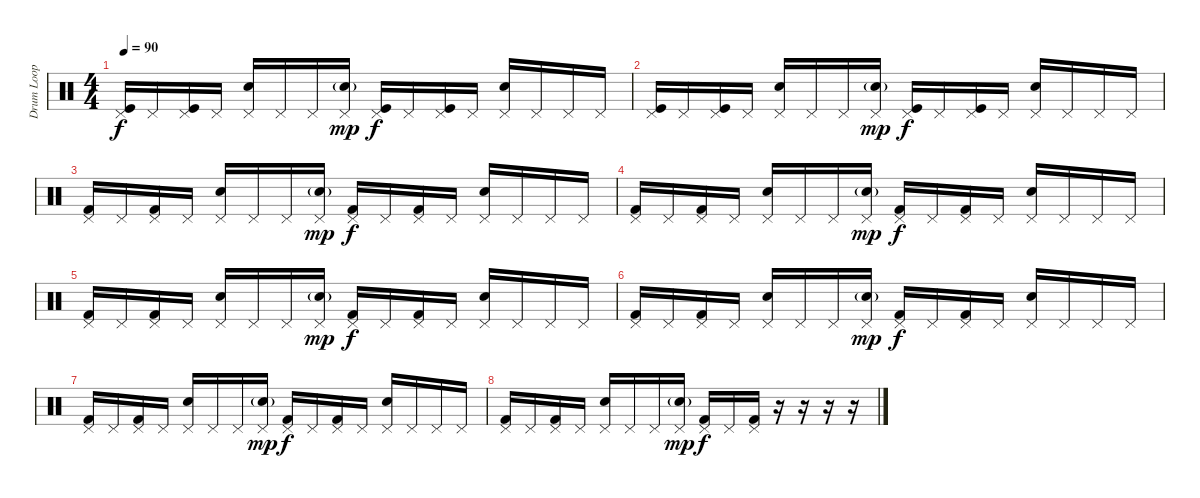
\track ("Drum Loop" "Drum Loop") {instrument percussion}
\staff {score}
\articulation defaults
\ts (4 4)
\tempo 90
\clef neutral
\ks c
("Pedal Hi-Hat (hit)" "Kick (hit)").16{dy f} "Pedal Hi-Hat (hit)".16 ("Pedal Hi-Hat (hit)" "Kick (hit)").16 "Pedal Hi-Hat (hit)".16 ("Pedal Hi-Hat (hit)" "Snare (hit) 2").16 "Pedal Hi-Hat (hit)".16 "Pedal Hi-Hat (hit)".16 ("Pedal Hi-Hat (hit)" "Snare (hit) 2"{g}).16{dy mp} ("Pedal Hi-Hat (hit)" "Kick (hit)").16{dy f} "Pedal Hi-Hat (hit)".16 ("Pedal Hi-Hat (hit)" "Kick (hit)").16 "Pedal Hi-Hat (hit)".16 ("Pedal Hi-Hat (hit)" "Snare (hit) 2").16 "Pedal Hi-Hat (hit)".16 "Pedal Hi-Hat (hit)".16 "Pedal Hi-Hat (hit)".16 |
("Pedal Hi-Hat (hit)" "Kick (hit)").16 "Pedal Hi-Hat (hit)".16 ("Pedal Hi-Hat (hit)" "Kick (hit)").16 "Pedal Hi-Hat (hit)".16 ("Pedal Hi-Hat (hit)" "Snare (hit) 2").16 "Pedal Hi-Hat (hit)".16 "Pedal Hi-Hat (hit)".16 ("Pedal Hi-Hat (hit)" "Snare (hit) 2"{g}).16{dy mp} ("Pedal Hi-Hat (hit)" "Kick (hit)").16{dy f} "Pedal Hi-Hat (hit)".16 ("Pedal Hi-Hat (hit)" "Kick (hit)").16 "Pedal Hi-Hat (hit)".16 ("Pedal Hi-Hat (hit)" "Snare (hit) 2").16 "Pedal Hi-Hat (hit)".16 "Pedal Hi-Hat (hit)".16 "Pedal Hi-Hat (hit)".16 |
("Pedal Hi-Hat (hit)" "Kick (hit) 2").16 "Pedal Hi-Hat (hit)".16 ("Pedal Hi-Hat (hit)" "Kick (hit) 2").16 "Pedal Hi-Hat (hit)".16 ("Pedal Hi-Hat (hit)" "Snare (hit) 2").16 "Pedal Hi-Hat (hit)".16 "Pedal Hi-Hat (hit)".16 ("Pedal Hi-Hat (hit)" "Snare (hit) 2"{g}).16{dy mp} ("Pedal Hi-Hat (hit)" "Kick (hit) 2").16{dy f} "Pedal Hi-Hat (hit)".16 ("Pedal Hi-Hat (hit)" "Kick (hit) 2").16 "Pedal Hi-Hat (hit)".16 ("Pedal Hi-Hat (hit)" "Snare (hit) 2").16 "Pedal Hi-Hat (hit)".16 "Pedal Hi-Hat (hit)".16 "Pedal Hi-Hat (hit)".16 |
("Pedal Hi-Hat (hit)" "Kick (hit) 2").16 "Pedal Hi-Hat (hit)".16 ("Pedal Hi-Hat (hit)" "Kick (hit) 2").16 "Pedal Hi-Hat (hit)".16 ("Pedal Hi-Hat (hit)" "Snare (hit) 2").16 "Pedal Hi-Hat (hit)".16 "Pedal Hi-Hat (hit)".16 ("Pedal Hi-Hat (hit)" "Snare (hit) 2"{g}).16{dy mp} ("Pedal Hi-Hat (hit)" "Kick (hit) 2").16{dy f} "Pedal Hi-Hat (hit)".16 ("Pedal Hi-Hat (hit)" "Kick (hit) 2").16 "Pedal Hi-Hat (hit)".16 ("Pedal Hi-Hat (hit)" "Snare (hit) 2").16 "Pedal Hi-Hat (hit)".16 "Pedal Hi-Hat (hit)".16 "Pedal Hi-Hat (hit)".16 |
("Pedal Hi-Hat (hit)" "Kick (hit) 2").16 "Pedal Hi-Hat (hit)".16 ("Pedal Hi-Hat (hit)" "Kick (hit) 2").16 "Pedal Hi-Hat (hit)".16 ("Pedal Hi-Hat (hit)" "Snare (hit) 2").16 "Pedal Hi-Hat (hit)".16 "Pedal Hi-Hat (hit)".16 ("Pedal Hi-Hat (hit)" "Snare (hit) 2"{g}).16{dy mp} ("Pedal Hi-Hat (hit)" "Kick (hit) 2").16{dy f} "Pedal Hi-Hat (hit)".16 ("Pedal Hi-Hat (hit)" "Kick (hit) 2").16 "Pedal Hi-Hat (hit)".16 ("Pedal Hi-Hat (hit)" "Snare (hit) 2").16 "Pedal Hi-Hat (hit)".16 "Pedal Hi-Hat (hit)".16 "Pedal Hi-Hat (hit)".16 |
("Pedal Hi-Hat (hit)" "Kick (hit) 2").16 "Pedal Hi-Hat (hit)".16 ("Pedal Hi-Hat (hit)" "Kick (hit) 2").16 "Pedal Hi-Hat (hit)".16 ("Pedal Hi-Hat (hit)" "Snare (hit) 2").16 "Pedal Hi-Hat (hit)".16 "Pedal Hi-Hat (hit)".16 ("Pedal Hi-Hat (hit)" "Snare (hit) 2"{g}).16{dy mp} ("Pedal Hi-Hat (hit)" "Kick (hit) 2").16{dy f} "Pedal Hi-Hat (hit)".16 ("Pedal Hi-Hat (hit)" "Kick (hit) 2").16 "Pedal Hi-Hat (hit)".16 ("Pedal Hi-Hat (hit)" "Snare (hit) 2").16 "Pedal Hi-Hat (hit)".16 "Pedal Hi-Hat (hit)".16 "Pedal Hi-Hat (hit)".16 |
("Pedal Hi-Hat (hit)" "Kick (hit) 2").16 "Pedal Hi-Hat (hit)".16 ("Pedal Hi-Hat (hit)" "Kick (hit) 2").16 "Pedal Hi-Hat (hit)".16 ("Pedal Hi-Hat (hit)" "Snare (hit) 2").16 "Pedal Hi-Hat (hit)".16 "Pedal Hi-Hat (hit)".16 ("Pedal Hi-Hat (hit)" "Snare (hit) 2"{g}).16{dy mp} ("Pedal Hi-Hat (hit)" "Kick (hit) 2").16{dy f} "Pedal Hi-Hat (hit)".16 ("Pedal Hi-Hat (hit)" "Kick (hit) 2").16 "Pedal Hi-Hat (hit)".16 ("Pedal Hi-Hat (hit)" "Snare (hit) 2").16 "Pedal Hi-Hat (hit)".16 "Pedal Hi-Hat (hit)".16 "Pedal Hi-Hat (hit)".16 |
("Pedal Hi-Hat (hit)" "Kick (hit) 2").16 "Pedal Hi-Hat (hit)".16 ("Pedal Hi-Hat (hit)" "Kick (hit) 2").16 "Pedal Hi-Hat (hit)".16 ("Pedal Hi-Hat (hit)" "Snare (hit) 2").16 "Pedal Hi-Hat (hit)".16 "Pedal Hi-Hat (hit)".16 ("Pedal Hi-Hat (hit)" "Snare (hit) 2"{g}).16{dy mp} ("Pedal Hi-Hat (hit)" "Kick (hit) 2").16{dy f} "Pedal Hi-Hat (hit)".16 ("Pedal Hi-Hat (hit)" "Kick (hit) 2").16 r.16 r.16 r.16 r.16
